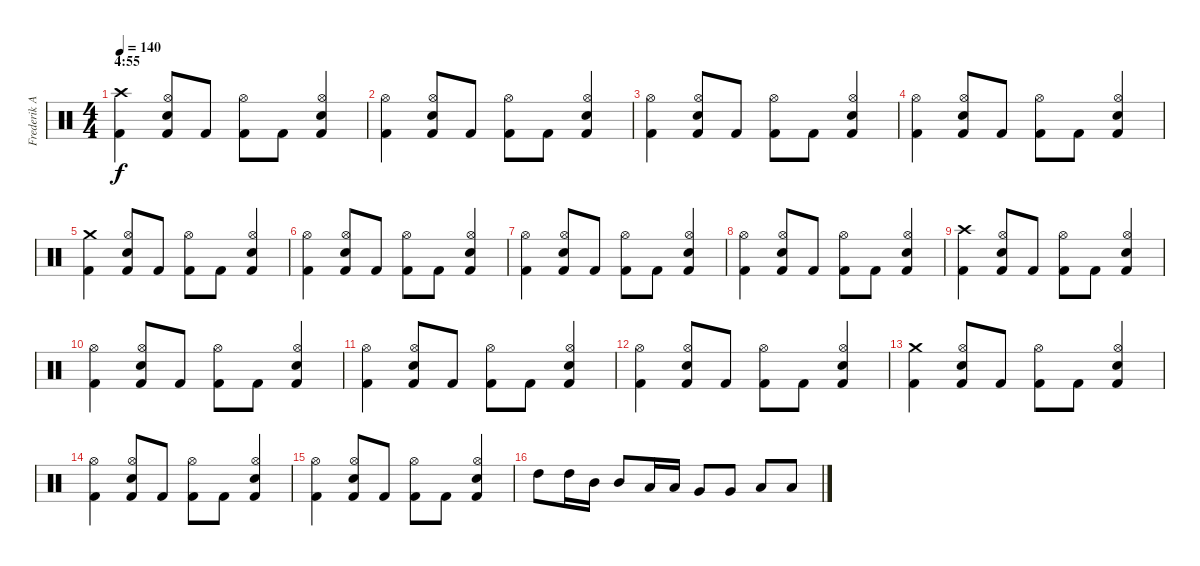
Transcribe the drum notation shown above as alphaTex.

\track ("Frederik Anderson" "Frederik A") {instrument percussion}
\staff {score}
\articulation defaults
\ts (4 4)
\section ("" "4:55")
\tempo 140
\clef neutral
\ks c
("Crash high (hit)" "Kick (hit) 2").4{dy f} ("Hi-Hat (open)" "Electric Snare (hit)" "Kick (hit) 2").8 "Kick (hit) 2".8 ("Hi-Hat (open)" "Kick (hit) 2").8 "Kick (hit) 2".8 ("Hi-Hat (open)" "Electric Snare (hit)" "Kick (hit) 2").4 |
("Hi-Hat (open)" "Kick (hit) 2").4 ("Hi-Hat (open)" "Electric Snare (hit)" "Kick (hit) 2").8 "Kick (hit) 2".8 ("Hi-Hat (open)" "Kick (hit) 2").8 "Kick (hit) 2".8 ("Hi-Hat (open)" "Electric Snare (hit)" "Kick (hit) 2").4 |
("Hi-Hat (open)" "Kick (hit) 2").4 ("Hi-Hat (open)" "Electric Snare (hit)" "Kick (hit) 2").8 "Kick (hit) 2".8 ("Hi-Hat (open)" "Kick (hit) 2").8 "Kick (hit) 2".8 ("Hi-Hat (open)" "Electric Snare (hit)" "Kick (hit) 2").4 |
("Hi-Hat (open)" "Kick (hit) 2").4 ("Hi-Hat (open)" "Electric Snare (hit)" "Kick (hit) 2").8 "Kick (hit) 2".8 ("Hi-Hat (open)" "Kick (hit) 2").8 "Kick (hit) 2".8 ("Hi-Hat (open)" "Electric Snare (hit)" "Kick (hit) 2").4 |
("Crash medium (hit)" "Kick (hit) 2").4 ("Hi-Hat (open)" "Electric Snare (hit)" "Kick (hit) 2").8 "Kick (hit) 2".8 ("Hi-Hat (open)" "Kick (hit) 2").8 "Kick (hit) 2".8 ("Hi-Hat (open)" "Electric Snare (hit)" "Kick (hit) 2").4 |
("Hi-Hat (open)" "Kick (hit) 2").4 ("Hi-Hat (open)" "Electric Snare (hit)" "Kick (hit) 2").8 "Kick (hit) 2".8 ("Hi-Hat (open)" "Kick (hit) 2").8 "Kick (hit) 2".8 ("Hi-Hat (open)" "Electric Snare (hit)" "Kick (hit) 2").4 |
("Hi-Hat (open)" "Kick (hit) 2").4 ("Hi-Hat (open)" "Electric Snare (hit)" "Kick (hit) 2").8 "Kick (hit) 2".8 ("Hi-Hat (open)" "Kick (hit) 2").8 "Kick (hit) 2".8 ("Hi-Hat (open)" "Electric Snare (hit)" "Kick (hit) 2").4 |
("Hi-Hat (open)" "Kick (hit) 2").4 ("Hi-Hat (open)" "Electric Snare (hit)" "Kick (hit) 2").8 "Kick (hit) 2".8 ("Hi-Hat (open)" "Kick (hit) 2").8 "Kick (hit) 2".8 ("Hi-Hat (open)" "Electric Snare (hit)" "Kick (hit) 2").4 |
("Crash high (hit)" "Kick (hit) 2").4 ("Hi-Hat (open)" "Electric Snare (hit)" "Kick (hit) 2").8 "Kick (hit) 2".8 ("Hi-Hat (open)" "Kick (hit) 2").8 "Kick (hit) 2".8 ("Hi-Hat (open)" "Electric Snare (hit)" "Kick (hit) 2").4 |
("Hi-Hat (open)" "Kick (hit) 2").4 ("Hi-Hat (open)" "Electric Snare (hit)" "Kick (hit) 2").8 "Kick (hit) 2".8 ("Hi-Hat (open)" "Kick (hit) 2").8 "Kick (hit) 2".8 ("Hi-Hat (open)" "Electric Snare (hit)" "Kick (hit) 2").4 |
("Hi-Hat (open)" "Kick (hit) 2").4 ("Hi-Hat (open)" "Electric Snare (hit)" "Kick (hit) 2").8 "Kick (hit) 2".8 ("Hi-Hat (open)" "Kick (hit) 2").8 "Kick (hit) 2".8 ("Hi-Hat (open)" "Electric Snare (hit)" "Kick (hit) 2").4 |
("Hi-Hat (open)" "Kick (hit) 2").4 ("Hi-Hat (open)" "Electric Snare (hit)" "Kick (hit) 2").8 "Kick (hit) 2".8 ("Hi-Hat (open)" "Kick (hit) 2").8 "Kick (hit) 2".8 ("Hi-Hat (open)" "Electric Snare (hit)" "Kick (hit) 2").4 |
("Crash medium (hit)" "Kick (hit) 2").4 ("Hi-Hat (open)" "Electric Snare (hit)" "Kick (hit) 2").8 "Kick (hit) 2".8 ("Hi-Hat (open)" "Kick (hit) 2").8 "Kick (hit) 2".8 ("Hi-Hat (open)" "Electric Snare (hit)" "Kick (hit) 2").4 |
("Hi-Hat (open)" "Kick (hit) 2").4 ("Hi-Hat (open)" "Electric Snare (hit)" "Kick (hit) 2").8 "Kick (hit) 2".8 ("Hi-Hat (open)" "Kick (hit) 2").8 "Kick (hit) 2".8 ("Hi-Hat (open)" "Electric Snare (hit)" "Kick (hit) 2").4 |
("Hi-Hat (open)" "Kick (hit) 2").4 ("Hi-Hat (open)" "Electric Snare (hit)" "Kick (hit) 2").8 "Kick (hit) 2".8 ("Hi-Hat (open)" "Kick (hit) 2").8 "Kick (hit) 2".8 ("Hi-Hat (open)" "Electric Snare (hit)" "Kick (hit) 2").4 |
"High Tom (hit)".8 "High Tom (hit)".16 "Mid Tom (hit)".16 "Mid Tom (hit)".8 "Low Tom (hit)".16 "Low Tom (hit)".16 "Very Low Tom (hit)".8 "Very Low Tom (hit)".8 "Low Floor Tom (hit)".8 "Low Floor Tom (hit)".8
